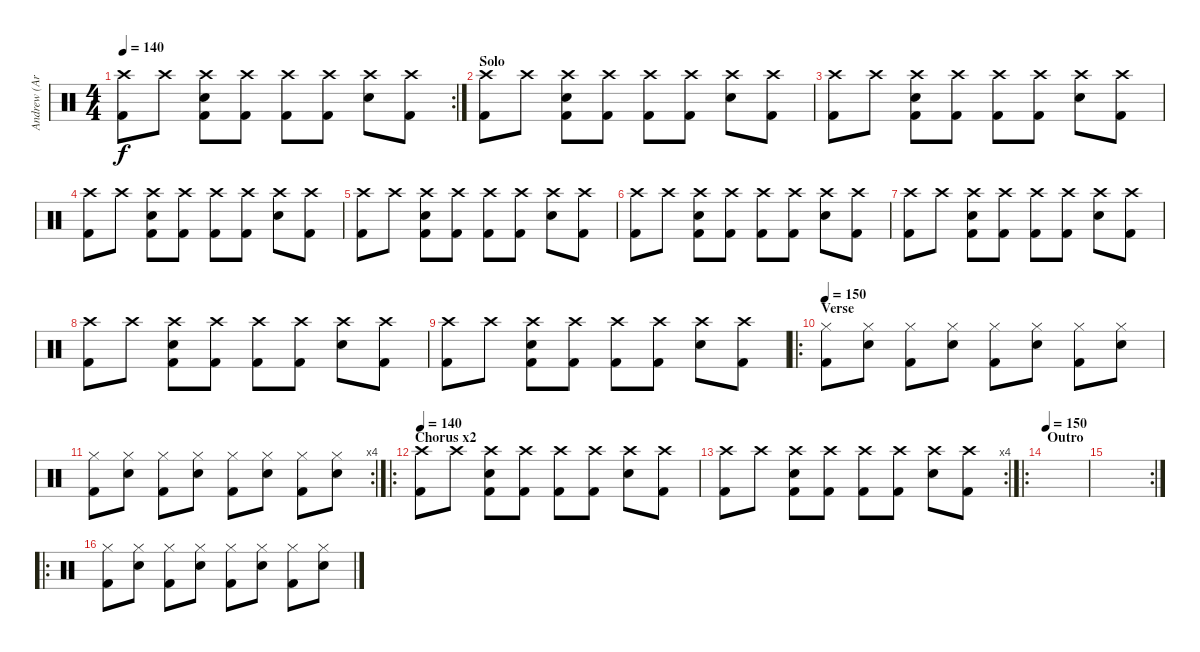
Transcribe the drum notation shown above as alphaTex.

\track ("Andrew (Arthur)" "Andrew (Ar") {instrument percussion}
\staff {score}
\articulation defaults
\rc 2
\ts (4 4)
\tempo 140
\clef neutral
\ks c
("Crash high (hit)" "Kick (hit) 2").8{dy f} "Crash high (hit)".8 ("Crash high (hit)" "Kick (hit) 2" "Snare (hit) 2").8 ("Crash high (hit)" "Kick (hit) 2").8 ("Crash high (hit)" "Kick (hit) 2").8 ("Crash high (hit)" "Kick (hit) 2").8 ("Crash high (hit)" "Snare (hit) 2").8 ("Crash high (hit)" "Kick (hit) 2").8 |
\section ("" "Solo")
("Crash high (hit)" "Kick (hit) 2").8 "Crash high (hit)".8 ("Crash high (hit)" "Kick (hit) 2" "Snare (hit) 2").8 ("Crash high (hit)" "Kick (hit) 2").8 ("Crash high (hit)" "Kick (hit) 2").8 ("Crash high (hit)" "Kick (hit) 2").8 ("Crash high (hit)" "Snare (hit) 2").8 ("Crash high (hit)" "Kick (hit) 2").8 |
("Crash high (hit)" "Kick (hit) 2").8 "Crash high (hit)".8 ("Crash high (hit)" "Kick (hit) 2" "Snare (hit) 2").8 ("Crash high (hit)" "Kick (hit) 2").8 ("Crash high (hit)" "Kick (hit) 2").8 ("Crash high (hit)" "Kick (hit) 2").8 ("Crash high (hit)" "Snare (hit) 2").8 ("Crash high (hit)" "Kick (hit) 2").8 |
("Crash high (hit)" "Kick (hit) 2").8 "Crash high (hit)".8 ("Crash high (hit)" "Kick (hit) 2" "Snare (hit) 2").8 ("Crash high (hit)" "Kick (hit) 2").8 ("Crash high (hit)" "Kick (hit) 2").8 ("Crash high (hit)" "Kick (hit) 2").8 ("Crash high (hit)" "Snare (hit) 2").8 ("Crash high (hit)" "Kick (hit) 2").8 |
("Crash high (hit)" "Kick (hit) 2").8 "Crash high (hit)".8 ("Crash high (hit)" "Kick (hit) 2" "Snare (hit) 2").8 ("Crash high (hit)" "Kick (hit) 2").8 ("Crash high (hit)" "Kick (hit) 2").8 ("Crash high (hit)" "Kick (hit) 2").8 ("Crash high (hit)" "Snare (hit) 2").8 ("Crash high (hit)" "Kick (hit) 2").8 |
("Crash high (hit)" "Kick (hit) 2").8 "Crash high (hit)".8 ("Crash high (hit)" "Kick (hit) 2" "Snare (hit) 2").8 ("Crash high (hit)" "Kick (hit) 2").8 ("Crash high (hit)" "Kick (hit) 2").8 ("Crash high (hit)" "Kick (hit) 2").8 ("Crash high (hit)" "Snare (hit) 2").8 ("Crash high (hit)" "Kick (hit) 2").8 |
("Crash high (hit)" "Kick (hit) 2").8 "Crash high (hit)".8 ("Crash high (hit)" "Kick (hit) 2" "Snare (hit) 2").8 ("Crash high (hit)" "Kick (hit) 2").8 ("Crash high (hit)" "Kick (hit) 2").8 ("Crash high (hit)" "Kick (hit) 2").8 ("Crash high (hit)" "Snare (hit) 2").8 ("Crash high (hit)" "Kick (hit) 2").8 |
("Crash high (hit)" "Kick (hit) 2").8 "Crash high (hit)".8 ("Crash high (hit)" "Kick (hit) 2" "Snare (hit) 2").8 ("Crash high (hit)" "Kick (hit) 2").8 ("Crash high (hit)" "Kick (hit) 2").8 ("Crash high (hit)" "Kick (hit) 2").8 ("Crash high (hit)" "Snare (hit) 2").8 ("Crash high (hit)" "Kick (hit) 2").8 |
("Crash high (hit)" "Kick (hit) 2").8 "Crash high (hit)".8 ("Crash high (hit)" "Kick (hit) 2" "Snare (hit) 2").8 ("Crash high (hit)" "Kick (hit) 2").8 ("Crash high (hit)" "Kick (hit) 2").8 ("Crash high (hit)" "Kick (hit) 2").8 ("Crash high (hit)" "Snare (hit) 2").8 ("Crash high (hit)" "Kick (hit) 2").8 |
\ro
\section ("" "Verse")
\tempo 150
("Hi-Hat (closed)" "Kick (hit) 2").8 ("Hi-Hat (closed)" "Electric Snare (hit)").8 ("Hi-Hat (closed)" "Kick (hit) 2").8 ("Hi-Hat (closed)" "Electric Snare (hit)").8 ("Hi-Hat (closed)" "Kick (hit) 2").8 ("Hi-Hat (closed)" "Electric Snare (hit)").8 ("Hi-Hat (closed)" "Kick (hit) 2").8 ("Hi-Hat (closed)" "Electric Snare (hit)").8 |
\rc 4
("Hi-Hat (closed)" "Kick (hit) 2").8 ("Hi-Hat (closed)" "Electric Snare (hit)").8 ("Hi-Hat (closed)" "Kick (hit) 2").8 ("Hi-Hat (closed)" "Electric Snare (hit)").8 ("Hi-Hat (closed)" "Kick (hit) 2").8 ("Hi-Hat (closed)" "Electric Snare (hit)").8 ("Hi-Hat (closed)" "Kick (hit) 2").8 ("Hi-Hat (closed)" "Electric Snare (hit)").8 |
\ro
\section ("" "Chorus x2")
\tempo 140
("Crash high (hit)" "Kick (hit) 2").8 "Crash high (hit)".8 ("Crash high (hit)" "Kick (hit) 2" "Snare (hit) 2").8 ("Crash high (hit)" "Kick (hit) 2").8 ("Crash high (hit)" "Kick (hit) 2").8 ("Crash high (hit)" "Kick (hit) 2").8 ("Crash high (hit)" "Snare (hit) 2").8 ("Crash high (hit)" "Kick (hit) 2").8 |
\rc 4
("Crash high (hit)" "Kick (hit) 2").8 "Crash high (hit)".8 ("Crash high (hit)" "Kick (hit) 2" "Snare (hit) 2").8 ("Crash high (hit)" "Kick (hit) 2").8 ("Crash high (hit)" "Kick (hit) 2").8 ("Crash high (hit)" "Kick (hit) 2").8 ("Crash high (hit)" "Snare (hit) 2").8 ("Crash high (hit)" "Kick (hit) 2").8 |
\ro
\section ("" "Outro")
\tempo 150
|
\rc 2
|
\ro
("Hi-Hat (closed)" "Kick (hit) 2").8 ("Hi-Hat (closed)" "Electric Snare (hit)").8 ("Hi-Hat (closed)" "Kick (hit) 2").8 ("Hi-Hat (closed)" "Electric Snare (hit)").8 ("Hi-Hat (closed)" "Kick (hit) 2").8 ("Hi-Hat (closed)" "Electric Snare (hit)").8 ("Hi-Hat (closed)" "Kick (hit) 2").8 ("Hi-Hat (closed)" "Electric Snare (hit)").8
